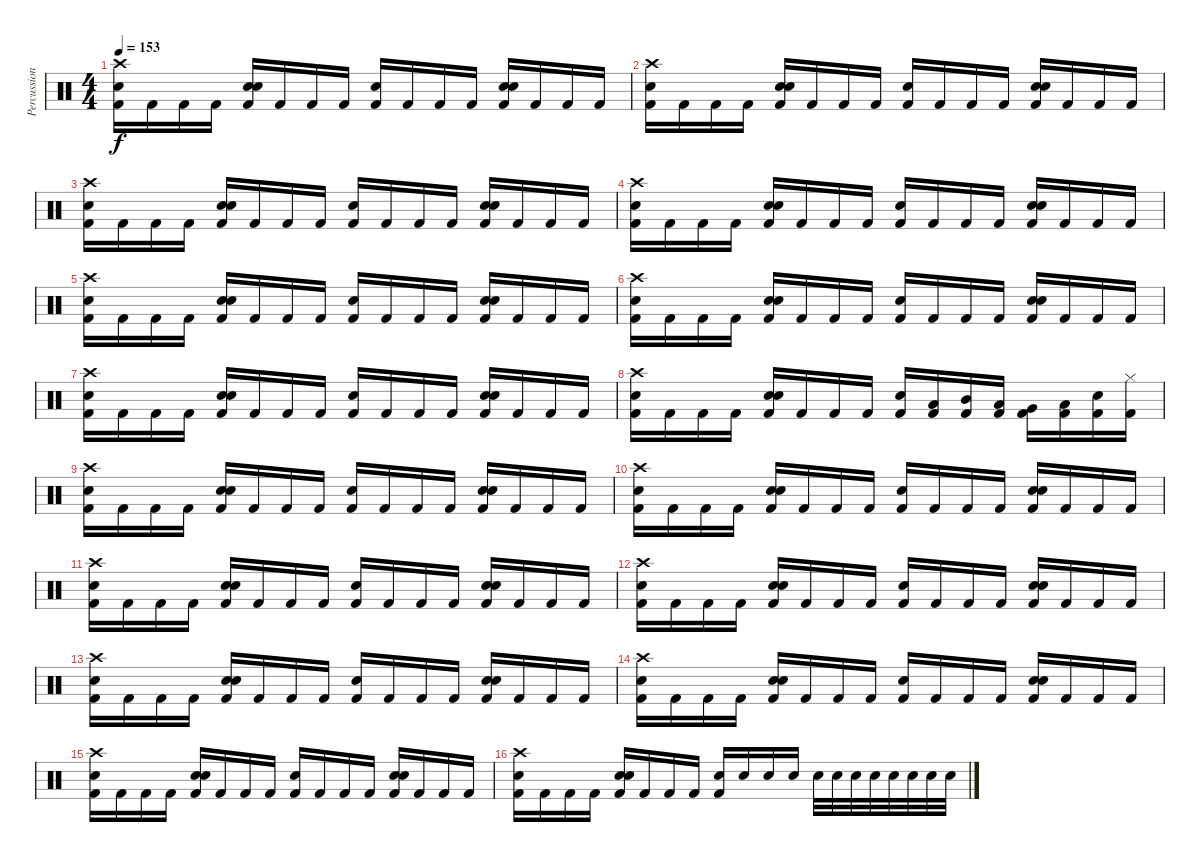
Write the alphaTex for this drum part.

\track ("Percussion" "Percussion") {instrument percussion}
\staff {score}
\articulation defaults
\ts (4 4)
\tempo 153
\clef neutral
\ks c
("Crash high (hit)" "Snare (hit) 2" "Kick (hit) 2").16{dy f} "Kick (hit) 2".16 "Kick (hit) 2".16 "Kick (hit) 2".16 ("Hand Clap (hit)" "Snare (hit) 2" "Kick (hit) 2").16 "Kick (hit) 2".16 "Kick (hit) 2".16 "Kick (hit) 2".16 ("Snare (hit) 2" "Kick (hit) 2").16 "Kick (hit) 2".16 "Kick (hit) 2".16 "Kick (hit) 2".16 ("Hand Clap (hit)" "Snare (hit) 2" "Kick (hit) 2").16 "Kick (hit) 2".16 "Kick (hit) 2".16 "Kick (hit) 2".16 |
("Crash high (hit)" "Snare (hit) 2" "Kick (hit) 2").16 "Kick (hit) 2".16 "Kick (hit) 2".16 "Kick (hit) 2".16 ("Hand Clap (hit)" "Snare (hit) 2" "Kick (hit) 2").16 "Kick (hit) 2".16 "Kick (hit) 2".16 "Kick (hit) 2".16 ("Snare (hit) 2" "Kick (hit) 2").16 "Kick (hit) 2".16 "Kick (hit) 2".16 "Kick (hit) 2".16 ("Hand Clap (hit)" "Snare (hit) 2" "Kick (hit) 2").16 "Kick (hit) 2".16 "Kick (hit) 2".16 "Kick (hit) 2".16 |
("Crash high (hit)" "Snare (hit) 2" "Kick (hit) 2").16 "Kick (hit) 2".16 "Kick (hit) 2".16 "Kick (hit) 2".16 ("Hand Clap (hit)" "Snare (hit) 2" "Kick (hit) 2").16 "Kick (hit) 2".16 "Kick (hit) 2".16 "Kick (hit) 2".16 ("Snare (hit) 2" "Kick (hit) 2").16 "Kick (hit) 2".16 "Kick (hit) 2".16 "Kick (hit) 2".16 ("Hand Clap (hit)" "Snare (hit) 2" "Kick (hit) 2").16 "Kick (hit) 2".16 "Kick (hit) 2".16 "Kick (hit) 2".16 |
("Crash high (hit)" "Snare (hit) 2" "Kick (hit) 2").16 "Kick (hit) 2".16 "Kick (hit) 2".16 "Kick (hit) 2".16 ("Hand Clap (hit)" "Snare (hit) 2" "Kick (hit) 2").16 "Kick (hit) 2".16 "Kick (hit) 2".16 "Kick (hit) 2".16 ("Snare (hit) 2" "Kick (hit) 2").16 "Kick (hit) 2".16 "Kick (hit) 2".16 "Kick (hit) 2".16 ("Hand Clap (hit)" "Snare (hit) 2" "Kick (hit) 2").16 "Kick (hit) 2".16 "Kick (hit) 2".16 "Kick (hit) 2".16 |
("Crash high (hit)" "Snare (hit) 2" "Kick (hit) 2").16 "Kick (hit) 2".16 "Kick (hit) 2".16 "Kick (hit) 2".16 ("Hand Clap (hit)" "Snare (hit) 2" "Kick (hit) 2").16 "Kick (hit) 2".16 "Kick (hit) 2".16 "Kick (hit) 2".16 ("Snare (hit) 2" "Kick (hit) 2").16 "Kick (hit) 2".16 "Kick (hit) 2".16 "Kick (hit) 2".16 ("Hand Clap (hit)" "Snare (hit) 2" "Kick (hit) 2").16 "Kick (hit) 2".16 "Kick (hit) 2".16 "Kick (hit) 2".16 |
("Crash high (hit)" "Snare (hit) 2" "Kick (hit) 2").16 "Kick (hit) 2".16 "Kick (hit) 2".16 "Kick (hit) 2".16 ("Hand Clap (hit)" "Snare (hit) 2" "Kick (hit) 2").16 "Kick (hit) 2".16 "Kick (hit) 2".16 "Kick (hit) 2".16 ("Snare (hit) 2" "Kick (hit) 2").16 "Kick (hit) 2".16 "Kick (hit) 2".16 "Kick (hit) 2".16 ("Hand Clap (hit)" "Snare (hit) 2" "Kick (hit) 2").16 "Kick (hit) 2".16 "Kick (hit) 2".16 "Kick (hit) 2".16 |
("Crash high (hit)" "Snare (hit) 2" "Kick (hit) 2").16 "Kick (hit) 2".16 "Kick (hit) 2".16 "Kick (hit) 2".16 ("Hand Clap (hit)" "Snare (hit) 2" "Kick (hit) 2").16 "Kick (hit) 2".16 "Kick (hit) 2".16 "Kick (hit) 2".16 ("Snare (hit) 2" "Kick (hit) 2").16 "Kick (hit) 2".16 "Kick (hit) 2".16 "Kick (hit) 2".16 ("Hand Clap (hit)" "Snare (hit) 2" "Kick (hit) 2").16 "Kick (hit) 2".16 "Kick (hit) 2".16 "Kick (hit) 2".16 |
("Crash high (hit)" "Snare (hit) 2" "Kick (hit) 2").16 "Kick (hit) 2".16 "Kick (hit) 2".16 "Kick (hit) 2".16 ("Hand Clap (hit)" "Snare (hit) 2" "Kick (hit) 2").16 "Kick (hit) 2".16 "Kick (hit) 2".16 "Kick (hit) 2".16 ("Snare (hit) 2" "Kick (hit) 2").16 ("Low Tom (hit)" "Kick (hit) 2").16 ("Mid Tom (hit)" "Kick (hit) 2").16 ("Low Floor Tom (hit)" "Kick (hit) 2").16 ("Very Low Tom (hit)" "Kick (hit) 2").16 ("Low Floor Tom (hit)" "Kick (hit) 2").16 ("Electric Snare (hit)" "Kick (hit) 2").16 ("Hi-Hat (closed)" "Kick (hit) 2").16 |
("Crash high (hit)" "Snare (hit) 2" "Kick (hit) 2").16 "Kick (hit) 2".16 "Kick (hit) 2".16 "Kick (hit) 2".16 ("Hand Clap (hit)" "Snare (hit) 2" "Kick (hit) 2").16 "Kick (hit) 2".16 "Kick (hit) 2".16 "Kick (hit) 2".16 ("Snare (hit) 2" "Kick (hit) 2").16 "Kick (hit) 2".16 "Kick (hit) 2".16 "Kick (hit) 2".16 ("Hand Clap (hit)" "Snare (hit) 2" "Kick (hit) 2").16 "Kick (hit) 2".16 "Kick (hit) 2".16 "Kick (hit) 2".16 |
("Crash high (hit)" "Snare (hit) 2" "Kick (hit) 2").16 "Kick (hit) 2".16 "Kick (hit) 2".16 "Kick (hit) 2".16 ("Hand Clap (hit)" "Snare (hit) 2" "Kick (hit) 2").16 "Kick (hit) 2".16 "Kick (hit) 2".16 "Kick (hit) 2".16 ("Snare (hit) 2" "Kick (hit) 2").16 "Kick (hit) 2".16 "Kick (hit) 2".16 "Kick (hit) 2".16 ("Hand Clap (hit)" "Snare (hit) 2" "Kick (hit) 2").16 "Kick (hit) 2".16 "Kick (hit) 2".16 "Kick (hit) 2".16 |
("Crash high (hit)" "Snare (hit) 2" "Kick (hit) 2").16 "Kick (hit) 2".16 "Kick (hit) 2".16 "Kick (hit) 2".16 ("Hand Clap (hit)" "Snare (hit) 2" "Kick (hit) 2").16 "Kick (hit) 2".16 "Kick (hit) 2".16 "Kick (hit) 2".16 ("Snare (hit) 2" "Kick (hit) 2").16 "Kick (hit) 2".16 "Kick (hit) 2".16 "Kick (hit) 2".16 ("Hand Clap (hit)" "Snare (hit) 2" "Kick (hit) 2").16 "Kick (hit) 2".16 "Kick (hit) 2".16 "Kick (hit) 2".16 |
("Crash high (hit)" "Snare (hit) 2" "Kick (hit) 2").16 "Kick (hit) 2".16 "Kick (hit) 2".16 "Kick (hit) 2".16 ("Hand Clap (hit)" "Snare (hit) 2" "Kick (hit) 2").16 "Kick (hit) 2".16 "Kick (hit) 2".16 "Kick (hit) 2".16 ("Snare (hit) 2" "Kick (hit) 2").16 "Kick (hit) 2".16 "Kick (hit) 2".16 "Kick (hit) 2".16 ("Hand Clap (hit)" "Snare (hit) 2" "Kick (hit) 2").16 "Kick (hit) 2".16 "Kick (hit) 2".16 "Kick (hit) 2".16 |
("Crash high (hit)" "Snare (hit) 2" "Kick (hit) 2").16 "Kick (hit) 2".16 "Kick (hit) 2".16 "Kick (hit) 2".16 ("Hand Clap (hit)" "Snare (hit) 2" "Kick (hit) 2").16 "Kick (hit) 2".16 "Kick (hit) 2".16 "Kick (hit) 2".16 ("Snare (hit) 2" "Kick (hit) 2").16 "Kick (hit) 2".16 "Kick (hit) 2".16 "Kick (hit) 2".16 ("Hand Clap (hit)" "Snare (hit) 2" "Kick (hit) 2").16 "Kick (hit) 2".16 "Kick (hit) 2".16 "Kick (hit) 2".16 |
("Crash high (hit)" "Snare (hit) 2" "Kick (hit) 2").16 "Kick (hit) 2".16 "Kick (hit) 2".16 "Kick (hit) 2".16 ("Hand Clap (hit)" "Snare (hit) 2" "Kick (hit) 2").16 "Kick (hit) 2".16 "Kick (hit) 2".16 "Kick (hit) 2".16 ("Snare (hit) 2" "Kick (hit) 2").16 "Kick (hit) 2".16 "Kick (hit) 2".16 "Kick (hit) 2".16 ("Hand Clap (hit)" "Snare (hit) 2" "Kick (hit) 2").16 "Kick (hit) 2".16 "Kick (hit) 2".16 "Kick (hit) 2".16 |
("Crash high (hit)" "Snare (hit) 2" "Kick (hit) 2").16 "Kick (hit) 2".16 "Kick (hit) 2".16 "Kick (hit) 2".16 ("Hand Clap (hit)" "Snare (hit) 2" "Kick (hit) 2").16 "Kick (hit) 2".16 "Kick (hit) 2".16 "Kick (hit) 2".16 ("Snare (hit) 2" "Kick (hit) 2").16 "Kick (hit) 2".16 "Kick (hit) 2".16 "Kick (hit) 2".16 ("Hand Clap (hit)" "Snare (hit) 2" "Kick (hit) 2").16 "Kick (hit) 2".16 "Kick (hit) 2".16 "Kick (hit) 2".16 |
("Crash high (hit)" "Snare (hit) 2" "Kick (hit) 2").16 "Kick (hit) 2".16 "Kick (hit) 2".16 "Kick (hit) 2".16 ("Hand Clap (hit)" "Snare (hit) 2" "Kick (hit) 2").16 "Kick (hit) 2".16 "Kick (hit) 2".16 "Kick (hit) 2".16 ("Snare (hit) 2" "Kick (hit) 2").16 "Snare (hit) 2".16 "Snare (hit) 2".16 "Snare (hit) 2".16 "Snare (hit) 2".32 "Snare (hit) 2".32 "Snare (hit) 2".32 "Snare (hit) 2".32 "Snare (hit) 2".32 "Snare (hit) 2".32 "Snare (hit) 2".32 "Snare (hit) 2".32
